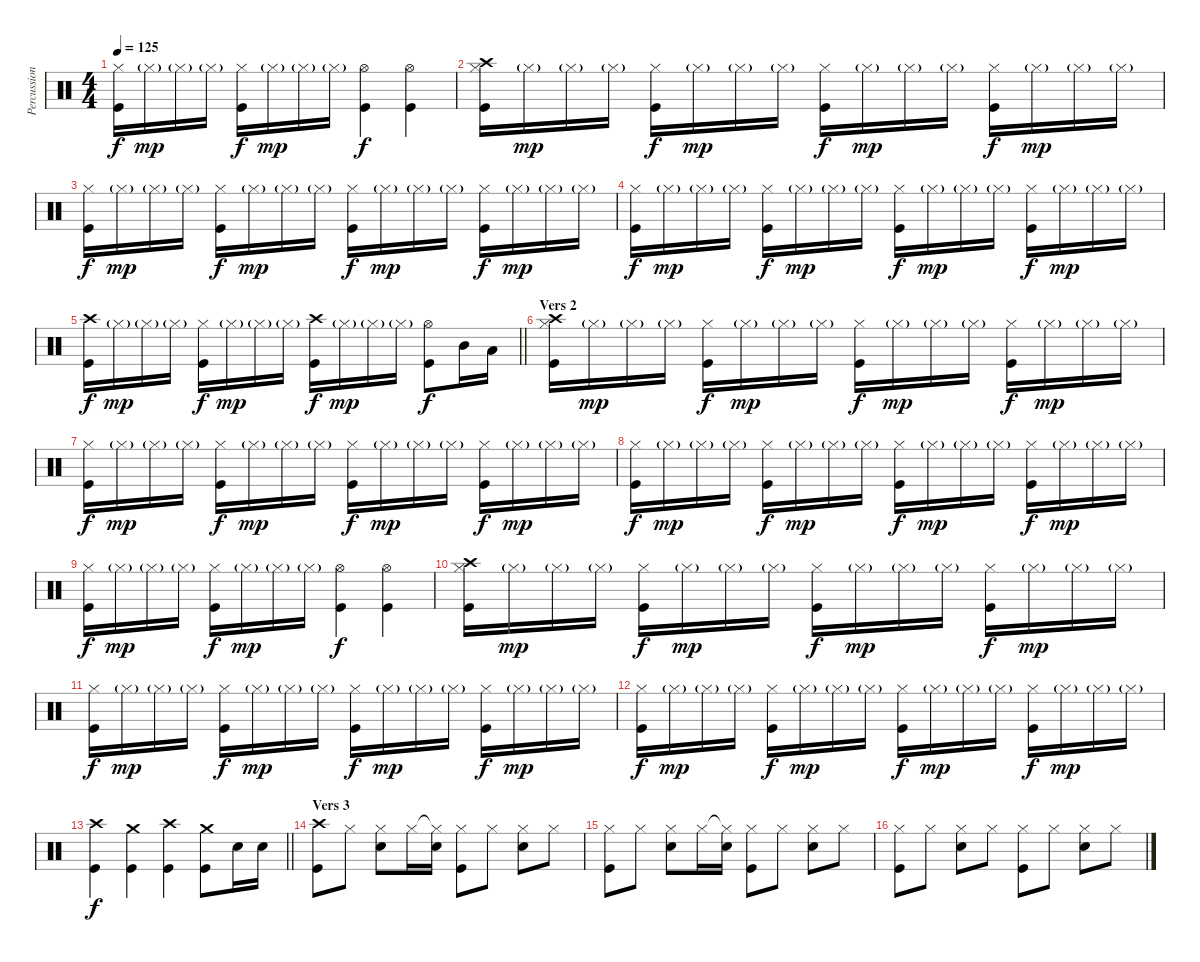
\track ("Percussion" "Percussion") {instrument percussion}
\staff {score}
\articulation defaults
\ts (4 4)
\tempo 125
\clef neutral
\ks c
("Hi-Hat (closed)" "Kick (hit)").16{dy f} "Hi-Hat (closed)"{g}.16{dy mp} "Hi-Hat (closed)"{g}.16 "Hi-Hat (closed)"{g}.16 ("Hi-Hat (closed)" "Kick (hit)").16{dy f} "Hi-Hat (closed)"{g}.16{dy mp} "Hi-Hat (closed)"{g}.16 "Hi-Hat (closed)"{g}.16 ("Hi-Hat (open)" "Kick (hit)").4{dy f} ("Hi-Hat (open)" "Kick (hit)").4 |
("Hi-Hat (closed)" "Kick (hit)" "Crash high (hit)").16 "Hi-Hat (closed)"{g}.16{dy mp} "Hi-Hat (closed)"{g}.16 "Hi-Hat (closed)"{g}.16 ("Hi-Hat (closed)" "Kick (hit)").16{dy f} "Hi-Hat (closed)"{g}.16{dy mp} "Hi-Hat (closed)"{g}.16 "Hi-Hat (closed)"{g}.16 ("Hi-Hat (closed)" "Kick (hit)").16{dy f} "Hi-Hat (closed)"{g}.16{dy mp} "Hi-Hat (closed)"{g}.16 "Hi-Hat (closed)"{g}.16 ("Hi-Hat (closed)" "Kick (hit)").16{dy f} "Hi-Hat (closed)"{g}.16{dy mp} "Hi-Hat (closed)"{g}.16 "Hi-Hat (closed)"{g}.16 |
("Hi-Hat (closed)" "Kick (hit)").16{dy f} "Hi-Hat (closed)"{g}.16{dy mp} "Hi-Hat (closed)"{g}.16 "Hi-Hat (closed)"{g}.16 ("Hi-Hat (closed)" "Kick (hit)").16{dy f} "Hi-Hat (closed)"{g}.16{dy mp} "Hi-Hat (closed)"{g}.16 "Hi-Hat (closed)"{g}.16 ("Hi-Hat (closed)" "Kick (hit)").16{dy f} "Hi-Hat (closed)"{g}.16{dy mp} "Hi-Hat (closed)"{g}.16 "Hi-Hat (closed)"{g}.16 ("Hi-Hat (closed)" "Kick (hit)").16{dy f} "Hi-Hat (closed)"{g}.16{dy mp} "Hi-Hat (closed)"{g}.16 "Hi-Hat (closed)"{g}.16 |
("Hi-Hat (closed)" "Kick (hit)").16{dy f} "Hi-Hat (closed)"{g}.16{dy mp} "Hi-Hat (closed)"{g}.16 "Hi-Hat (closed)"{g}.16 ("Hi-Hat (closed)" "Kick (hit)").16{dy f} "Hi-Hat (closed)"{g}.16{dy mp} "Hi-Hat (closed)"{g}.16 "Hi-Hat (closed)"{g}.16 ("Hi-Hat (closed)" "Kick (hit)").16{dy f} "Hi-Hat (closed)"{g}.16{dy mp} "Hi-Hat (closed)"{g}.16 "Hi-Hat (closed)"{g}.16 ("Hi-Hat (closed)" "Kick (hit)").16{dy f} "Hi-Hat (closed)"{g}.16{dy mp} "Hi-Hat (closed)"{g}.16 "Hi-Hat (closed)"{g}.16 |
\barLineRight lightlight
("Crash high (hit)" "Kick (hit)").16{dy f} "Hi-Hat (closed)"{g}.16{dy mp} "Hi-Hat (closed)"{g}.16 "Hi-Hat (closed)"{g}.16 ("Hi-Hat (closed)" "Kick (hit)").16{dy f} "Hi-Hat (closed)"{g}.16{dy mp} "Hi-Hat (closed)"{g}.16 "Hi-Hat (closed)"{g}.16 ("Crash high (hit)" "Kick (hit)").16{dy f} "Hi-Hat (closed)"{g}.16{dy mp} "Hi-Hat (closed)"{g}.16 "Hi-Hat (closed)"{g}.16 ("Hi-Hat (open)" "Kick (hit)").8{dy f} "Mid Tom (hit)".16 "Low Tom (hit)".16 |
\section ("" "Vers 2")
("Hi-Hat (closed)" "Kick (hit)" "Crash high (hit)").16 "Hi-Hat (closed)"{g}.16{dy mp} "Hi-Hat (closed)"{g}.16 "Hi-Hat (closed)"{g}.16 ("Hi-Hat (closed)" "Kick (hit)").16{dy f} "Hi-Hat (closed)"{g}.16{dy mp} "Hi-Hat (closed)"{g}.16 "Hi-Hat (closed)"{g}.16 ("Hi-Hat (closed)" "Kick (hit)").16{dy f} "Hi-Hat (closed)"{g}.16{dy mp} "Hi-Hat (closed)"{g}.16 "Hi-Hat (closed)"{g}.16 ("Hi-Hat (closed)" "Kick (hit)").16{dy f} "Hi-Hat (closed)"{g}.16{dy mp} "Hi-Hat (closed)"{g}.16 "Hi-Hat (closed)"{g}.16 |
("Hi-Hat (closed)" "Kick (hit)").16{dy f} "Hi-Hat (closed)"{g}.16{dy mp} "Hi-Hat (closed)"{g}.16 "Hi-Hat (closed)"{g}.16 ("Hi-Hat (closed)" "Kick (hit)").16{dy f} "Hi-Hat (closed)"{g}.16{dy mp} "Hi-Hat (closed)"{g}.16 "Hi-Hat (closed)"{g}.16 ("Hi-Hat (closed)" "Kick (hit)").16{dy f} "Hi-Hat (closed)"{g}.16{dy mp} "Hi-Hat (closed)"{g}.16 "Hi-Hat (closed)"{g}.16 ("Hi-Hat (closed)" "Kick (hit)").16{dy f} "Hi-Hat (closed)"{g}.16{dy mp} "Hi-Hat (closed)"{g}.16 "Hi-Hat (closed)"{g}.16 |
("Hi-Hat (closed)" "Kick (hit)").16{dy f} "Hi-Hat (closed)"{g}.16{dy mp} "Hi-Hat (closed)"{g}.16 "Hi-Hat (closed)"{g}.16 ("Hi-Hat (closed)" "Kick (hit)").16{dy f} "Hi-Hat (closed)"{g}.16{dy mp} "Hi-Hat (closed)"{g}.16 "Hi-Hat (closed)"{g}.16 ("Hi-Hat (closed)" "Kick (hit)").16{dy f} "Hi-Hat (closed)"{g}.16{dy mp} "Hi-Hat (closed)"{g}.16 "Hi-Hat (closed)"{g}.16 ("Hi-Hat (closed)" "Kick (hit)").16{dy f} "Hi-Hat (closed)"{g}.16{dy mp} "Hi-Hat (closed)"{g}.16 "Hi-Hat (closed)"{g}.16 |
("Hi-Hat (closed)" "Kick (hit)").16{dy f} "Hi-Hat (closed)"{g}.16{dy mp} "Hi-Hat (closed)"{g}.16 "Hi-Hat (closed)"{g}.16 ("Hi-Hat (closed)" "Kick (hit)").16{dy f} "Hi-Hat (closed)"{g}.16{dy mp} "Hi-Hat (closed)"{g}.16 "Hi-Hat (closed)"{g}.16 ("Hi-Hat (open)" "Kick (hit)").4{dy f} ("Hi-Hat (open)" "Kick (hit)").4 |
("Hi-Hat (closed)" "Kick (hit)" "Crash high (hit)").16 "Hi-Hat (closed)"{g}.16{dy mp} "Hi-Hat (closed)"{g}.16 "Hi-Hat (closed)"{g}.16 ("Hi-Hat (closed)" "Kick (hit)").16{dy f} "Hi-Hat (closed)"{g}.16{dy mp} "Hi-Hat (closed)"{g}.16 "Hi-Hat (closed)"{g}.16 ("Hi-Hat (closed)" "Kick (hit)").16{dy f} "Hi-Hat (closed)"{g}.16{dy mp} "Hi-Hat (closed)"{g}.16 "Hi-Hat (closed)"{g}.16 ("Hi-Hat (closed)" "Kick (hit)").16{dy f} "Hi-Hat (closed)"{g}.16{dy mp} "Hi-Hat (closed)"{g}.16 "Hi-Hat (closed)"{g}.16 |
("Hi-Hat (closed)" "Kick (hit)").16{dy f} "Hi-Hat (closed)"{g}.16{dy mp} "Hi-Hat (closed)"{g}.16 "Hi-Hat (closed)"{g}.16 ("Hi-Hat (closed)" "Kick (hit)").16{dy f} "Hi-Hat (closed)"{g}.16{dy mp} "Hi-Hat (closed)"{g}.16 "Hi-Hat (closed)"{g}.16 ("Hi-Hat (closed)" "Kick (hit)").16{dy f} "Hi-Hat (closed)"{g}.16{dy mp} "Hi-Hat (closed)"{g}.16 "Hi-Hat (closed)"{g}.16 ("Hi-Hat (closed)" "Kick (hit)").16{dy f} "Hi-Hat (closed)"{g}.16{dy mp} "Hi-Hat (closed)"{g}.16 "Hi-Hat (closed)"{g}.16 |
("Hi-Hat (closed)" "Kick (hit)").16{dy f} "Hi-Hat (closed)"{g}.16{dy mp} "Hi-Hat (closed)"{g}.16 "Hi-Hat (closed)"{g}.16 ("Hi-Hat (closed)" "Kick (hit)").16{dy f} "Hi-Hat (closed)"{g}.16{dy mp} "Hi-Hat (closed)"{g}.16 "Hi-Hat (closed)"{g}.16 ("Hi-Hat (closed)" "Kick (hit)").16{dy f} "Hi-Hat (closed)"{g}.16{dy mp} "Hi-Hat (closed)"{g}.16 "Hi-Hat (closed)"{g}.16 ("Hi-Hat (closed)" "Kick (hit)").16{dy f} "Hi-Hat (closed)"{g}.16{dy mp} "Hi-Hat (closed)"{g}.16 "Hi-Hat (closed)"{g}.16 |
\barLineRight lightlight
("Kick (hit)" "Crash high (hit)").4{dy f} ("Kick (hit)" "Crash medium (hit)").4 ("Kick (hit)" "Crash high (hit)").4 ("Kick (hit)" "Crash medium (hit)").8 "Snare (hit) 2".16 "Snare (hit) 2".16 |
\section ("" "Vers 3")
("Crash high (hit)" "Kick (hit)").8 "Hi-Hat (closed)".8 ("Hi-Hat (closed)" "Snare (hit) 2").8 "Hi-Hat (closed)".16 ("Hi-Hat (closed)"{t} "Snare (hit) 2").16 ("Kick (hit)" "Hi-Hat (closed)").8 "Hi-Hat (closed)".8 ("Hi-Hat (closed)" "Snare (hit) 2").8 "Hi-Hat (closed)".8 |
("Hi-Hat (closed)" "Kick (hit)").8 "Hi-Hat (closed)".8 ("Hi-Hat (closed)" "Snare (hit) 2").8 "Hi-Hat (closed)".16 ("Hi-Hat (closed)"{t} "Snare (hit) 2").16 ("Kick (hit)" "Hi-Hat (closed)").8 "Hi-Hat (closed)".8 ("Hi-Hat (closed)" "Snare (hit) 2").8 "Hi-Hat (closed)".8 |
("Hi-Hat (closed)" "Kick (hit)").8 "Hi-Hat (closed)".8 ("Hi-Hat (closed)" "Snare (hit) 2").8 "Hi-Hat (closed)".8 ("Kick (hit)" "Hi-Hat (closed)").8 "Hi-Hat (closed)".8 ("Hi-Hat (closed)" "Snare (hit) 2").8 "Hi-Hat (closed)".8
